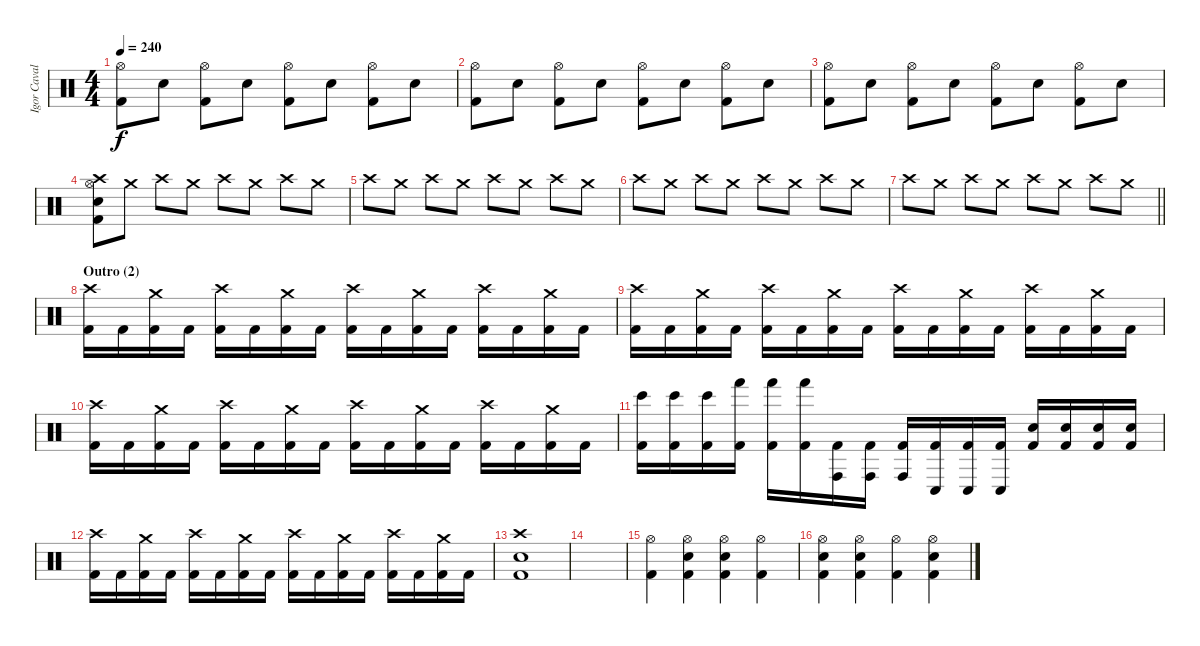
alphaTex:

\track ("Igor Cavalera" "Igor Caval") {instrument percussion}
\staff {score}
\articulation defaults
\ts (4 4)
\tempo 240
\clef neutral
\ks c
("Hi-Hat (open)" "Kick (hit) 2").8{dy f} "Electric Snare (hit)".8 ("Hi-Hat (open)" "Kick (hit) 2").8 "Electric Snare (hit)".8 ("Hi-Hat (open)" "Kick (hit) 2").8 "Electric Snare (hit)".8 ("Hi-Hat (open)" "Kick (hit) 2").8 "Electric Snare (hit)".8 |
("Hi-Hat (open)" "Kick (hit) 2").8 "Electric Snare (hit)".8 ("Hi-Hat (open)" "Kick (hit) 2").8 "Electric Snare (hit)".8 ("Hi-Hat (open)" "Kick (hit) 2").8 "Electric Snare (hit)".8 ("Hi-Hat (open)" "Kick (hit) 2").8 "Electric Snare (hit)".8 |
("Hi-Hat (open)" "Kick (hit) 2").8 "Electric Snare (hit)".8 ("Hi-Hat (open)" "Kick (hit) 2").8 "Electric Snare (hit)".8 ("Hi-Hat (open)" "Kick (hit) 2").8 "Electric Snare (hit)".8 ("Hi-Hat (open)" "Kick (hit) 2").8 "Electric Snare (hit)".8 |
("Crash high (hit)" "Hi-Hat (open)" "Electric Snare (hit)" "Kick (hit) 2").8 "Crash medium (hit)".8 "Crash high (hit)".8 "Crash medium (hit)".8 "Crash high (hit)".8 "Crash medium (hit)".8 "Crash high (hit)".8 "Crash medium (hit)".8 |
"Crash high (hit)".8 "Crash medium (hit)".8 "Crash high (hit)".8 "Crash medium (hit)".8 "Crash high (hit)".8 "Crash medium (hit)".8 "Crash high (hit)".8 "Crash medium (hit)".8 |
"Crash high (hit)".8 "Crash medium (hit)".8 "Crash high (hit)".8 "Crash medium (hit)".8 "Crash high (hit)".8 "Crash medium (hit)".8 "Crash high (hit)".8 "Crash medium (hit)".8 |
\barLineRight lightlight "Crash high (hit)".8 "Crash medium (hit)".8 "Crash high (hit)".8 "Crash medium (hit)".8 "Crash high (hit)".8 "Crash medium (hit)".8 "Crash high (hit)".8 "Crash medium (hit)".8
|
\section ("" "Outro (2)")
("Crash high (hit)" "Kick (hit) 2").16 "Kick (hit) 2".16 ("Crash medium (hit)" "Kick (hit) 2").16 "Kick (hit) 2".16 ("Crash high (hit)" "Kick (hit) 2").16 "Kick (hit) 2".16 ("Crash medium (hit)" "Kick (hit) 2").16 "Kick (hit) 2".16 ("Crash high (hit)" "Kick (hit) 2").16 "Kick (hit) 2".16 ("Crash medium (hit)" "Kick (hit) 2").16 "Kick (hit) 2".16 ("Crash high (hit)" "Kick (hit) 2").16 "Kick (hit) 2".16 ("Crash medium (hit)" "Kick (hit) 2").16 "Kick (hit) 2".16 |
("Crash high (hit)" "Kick (hit) 2").16 "Kick (hit) 2".16 ("Crash medium (hit)" "Kick (hit) 2").16 "Kick (hit) 2".16 ("Crash high (hit)" "Kick (hit) 2").16 "Kick (hit) 2".16 ("Crash medium (hit)" "Kick (hit) 2").16 "Kick (hit) 2".16 ("Crash high (hit)" "Kick (hit) 2").16 "Kick (hit) 2".16 ("Crash medium (hit)" "Kick (hit) 2").16 "Kick (hit) 2".16 ("Crash high (hit)" "Kick (hit) 2").16 "Kick (hit) 2".16 ("Crash medium (hit)" "Kick (hit) 2").16 "Kick (hit) 2".16 |
("Crash high (hit)" "Kick (hit) 2").16 "Kick (hit) 2".16 ("Crash medium (hit)" "Kick (hit) 2").16 "Kick (hit) 2".16 ("Crash high (hit)" "Kick (hit) 2").16 "Kick (hit) 2".16 ("Crash medium (hit)" "Kick (hit) 2").16 "Kick (hit) 2".16 ("Crash high (hit)" "Kick (hit) 2").16 "Kick (hit) 2".16 ("Crash medium (hit)" "Kick (hit) 2").16 "Kick (hit) 2".16 ("Crash high (hit)" "Kick (hit) 2").16 "Kick (hit) 2".16 ("Crash medium (hit)" "Kick (hit) 2").16 "Kick (hit) 2".16 |
("Bongo High (hit)" "Kick (hit) 2").16 ("Bongo High (hit)" "Kick (hit) 2").16 ("Bongo High (hit)" "Kick (hit) 2").16 ("Hand (hit)" "Kick (hit) 2").16 ("Hand (hit)" "Kick (hit) 2").16 ("Hand (hit)" "Kick (hit) 2").16 ("Conga high (hit)" "Kick (hit) 2").16 ("Conga high (hit)" "Kick (hit) 2").16 ("Conga high (hit)" "Kick (hit) 2").16 ("Conga low (hit)" "Kick (hit) 2").16 ("Conga low (hit)" "Kick (hit) 2").16 ("Conga low (hit)" "Kick (hit) 2").16 ("Snare (hit) 2" "Kick (hit) 2").16 ("Snare (hit) 2" "Kick (hit) 2").16 ("Snare (hit) 2" "Kick (hit) 2").16 ("Electric Snare (hit)" "Kick (hit) 2").16 |
("Crash high (hit)" "Kick (hit) 2").16 "Kick (hit) 2".16 ("Crash medium (hit)" "Kick (hit) 2").16 "Kick (hit) 2".16 ("Crash high (hit)" "Kick (hit) 2").16 "Kick (hit) 2".16 ("Crash medium (hit)" "Kick (hit) 2").16 "Kick (hit) 2".16 ("Crash high (hit)" "Kick (hit) 2").16 "Kick (hit) 2".16 ("Crash medium (hit)" "Kick (hit) 2").16 "Kick (hit) 2".16 ("Crash high (hit)" "Kick (hit) 2").16 "Kick (hit) 2".16 ("Crash medium (hit)" "Kick (hit) 2").16 "Kick (hit) 2".16 |
("Crash high (hit)" "Electric Snare (hit)" "Kick (hit) 2").1 |
|
("Hi-Hat (open)" "Kick (hit) 2").4 ("Hi-Hat (open)" "Electric Snare (hit)" "Kick (hit) 2").4 ("Hi-Hat (open)" "Electric Snare (hit)" "Kick (hit) 2").4 ("Hi-Hat (open)" "Kick (hit) 2").4 |
("Hi-Hat (open)" "Electric Snare (hit)" "Kick (hit) 2").4 ("Hi-Hat (open)" "Electric Snare (hit)" "Kick (hit) 2").4 ("Hi-Hat (open)" "Kick (hit) 2").4 ("Hi-Hat (open)" "Electric Snare (hit)" "Kick (hit) 2").4
